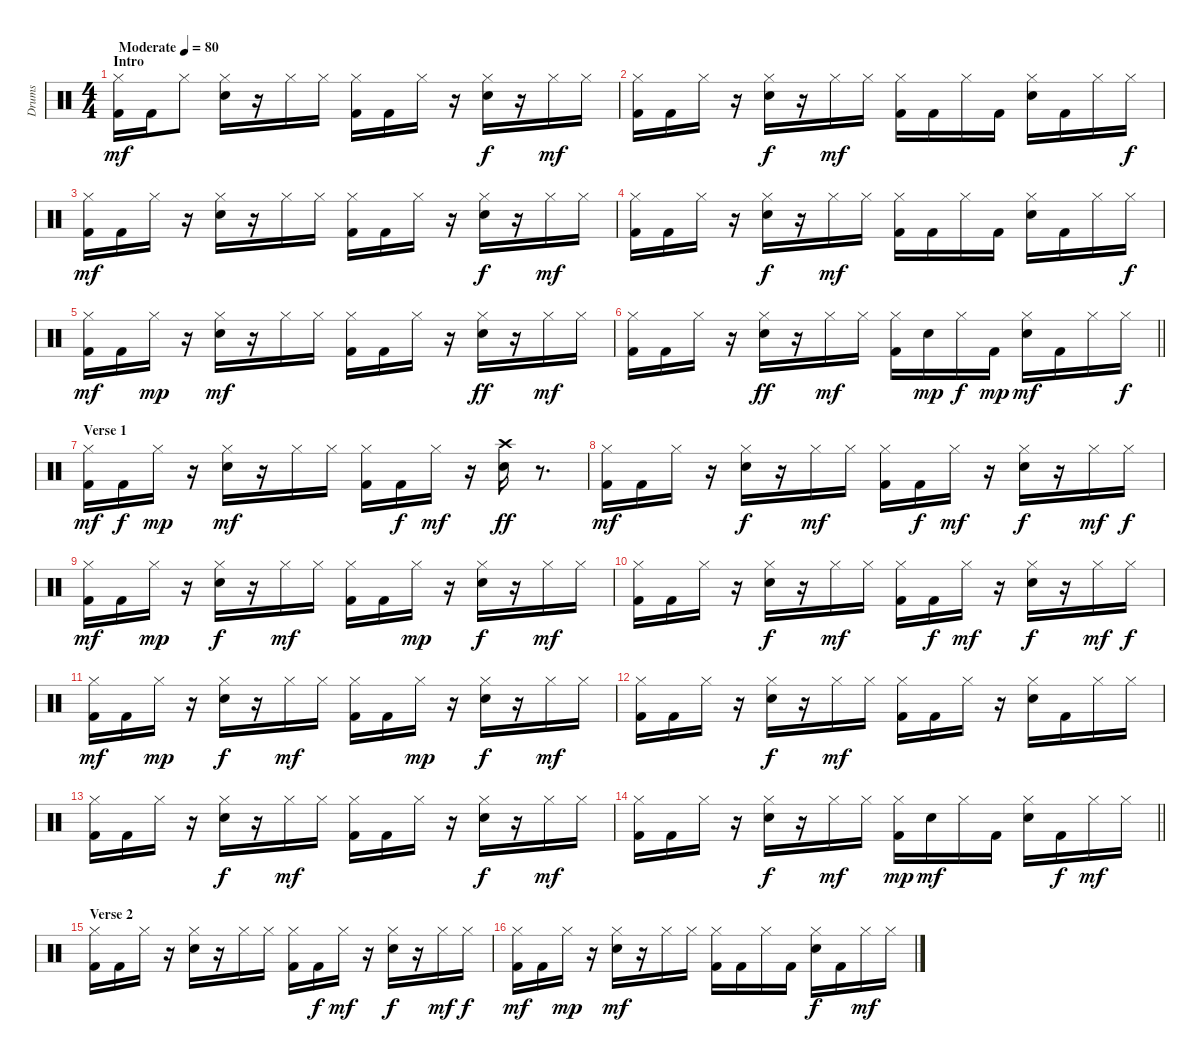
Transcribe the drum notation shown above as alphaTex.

\track ("Drums" "Drums") {instrument percussion}
\staff {score}
\articulation defaults
\ts (4 4)
\section ("" "Intro")
\tempo (80 "Moderate")
\clef neutral
\ks c
("Kick (hit) 2" "Hi-Hat (closed)").16{dy mf} "Kick (hit) 2".16 "Hi-Hat (closed)".8 ("Snare (hit) 2" "Hi-Hat (closed)").16 r.16 "Hi-Hat (closed)".16 "Hi-Hat (closed)".16 ("Kick (hit) 2" "Hi-Hat (closed)").16 "Kick (hit) 2".16 "Hi-Hat (closed)".16 r.16 ("Snare (hit) 2" "Hi-Hat (closed)").16{dy f} r.16 "Hi-Hat (closed)".16{dy mf} "Hi-Hat (closed)".16 |
("Kick (hit) 2" "Hi-Hat (closed)").16 "Kick (hit) 2".16 "Hi-Hat (closed)".16 r.16 ("Snare (hit) 2" "Hi-Hat (closed)").16{dy f} r.16 "Hi-Hat (closed)".16{dy mf} "Hi-Hat (closed)".16 ("Kick (hit) 2" "Hi-Hat (closed)").16 "Kick (hit) 2".16 "Hi-Hat (closed)".16 "Kick (hit) 2".16 ("Snare (hit) 2" "Hi-Hat (closed)").16 "Kick (hit) 2".16 "Hi-Hat (closed)".16 "Hi-Hat (closed)".16{dy f} |
("Kick (hit) 2" "Hi-Hat (closed)").16{dy mf} "Kick (hit) 2".16 "Hi-Hat (closed)".16 r.16 ("Snare (hit) 2" "Hi-Hat (closed)").16 r.16 "Hi-Hat (closed)".16 "Hi-Hat (closed)".16 ("Kick (hit) 2" "Hi-Hat (closed)").16 "Kick (hit) 2".16 "Hi-Hat (closed)".16 r.16 ("Snare (hit) 2" "Hi-Hat (closed)").16{dy f} r.16 "Hi-Hat (closed)".16{dy mf} "Hi-Hat (closed)".16 |
("Kick (hit) 2" "Hi-Hat (closed)").16 "Kick (hit) 2".16 "Hi-Hat (closed)".16 r.16 ("Snare (hit) 2" "Hi-Hat (closed)").16{dy f} r.16 "Hi-Hat (closed)".16{dy mf} "Hi-Hat (closed)".16 ("Kick (hit) 2" "Hi-Hat (closed)").16 "Kick (hit) 2".16 "Hi-Hat (closed)".16 "Kick (hit) 2".16 ("Snare (hit) 2" "Hi-Hat (closed)").16 "Kick (hit) 2".16 "Hi-Hat (closed)".16 "Hi-Hat (closed)".16{dy f} |
("Kick (hit) 2" "Hi-Hat (closed)").16{dy mf} "Kick (hit) 2".16 "Hi-Hat (closed)".16{dy mp} r.16 ("Snare (hit) 2" "Hi-Hat (closed)").16{dy mf} r.16 "Hi-Hat (closed)".16 "Hi-Hat (closed)".16 ("Kick (hit) 2" "Hi-Hat (closed)").16 "Kick (hit) 2".16 "Hi-Hat (closed)".16 r.16 ("Snare (hit) 2" "Hi-Hat (closed)").16{dy ff} r.16 "Hi-Hat (closed)".16{dy mf} "Hi-Hat (closed)".16 |
\barLineRight lightlight
("Kick (hit) 2" "Hi-Hat (closed)").16 "Kick (hit) 2".16 "Hi-Hat (closed)".16 r.16 ("Snare (hit) 2" "Hi-Hat (closed)").16{dy ff} r.16 "Hi-Hat (closed)".16{dy mf} "Hi-Hat (closed)".16 ("Kick (hit) 2" "Hi-Hat (closed)").16 "Snare (hit) 2".16{dy mp} "Hi-Hat (closed)".16{dy f} "Kick (hit) 2".16{dy mp} ("Snare (hit) 2" "Hi-Hat (closed)").16{dy mf} "Kick (hit) 2".16 "Hi-Hat (closed)".16 "Hi-Hat (closed)".16{dy f} |
\section ("" "Verse 1")
("Kick (hit) 2" "Hi-Hat (closed)").16{dy mf} "Kick (hit) 2".16{dy f} "Hi-Hat (closed)".16{dy mp} r.16 ("Snare (hit) 2" "Hi-Hat (closed)").16{dy mf} r.16 "Hi-Hat (closed)".16 "Hi-Hat (closed)".16 ("Kick (hit) 2" "Hi-Hat (closed)").16 "Kick (hit) 2".16{dy f} "Hi-Hat (closed)".16{dy mf} r.16 ("Snare (hit) 2" "Crash high (hit)").16{dy ff} r.8{d} |
("Kick (hit) 2" "Hi-Hat (closed)").16{dy mf} "Kick (hit) 2".16 "Hi-Hat (closed)".16 r.16 ("Snare (hit) 2" "Hi-Hat (closed)").16{dy f} r.16 "Hi-Hat (closed)".16{dy mf} "Hi-Hat (closed)".16 ("Kick (hit) 2" "Hi-Hat (closed)").16 "Kick (hit) 2".16{dy f} "Hi-Hat (closed)".16{dy mf} r.16 ("Snare (hit) 2" "Hi-Hat (closed)").16{dy f} r.16 "Hi-Hat (closed)".16{dy mf} "Hi-Hat (closed)".16{dy f} |
("Kick (hit) 2" "Hi-Hat (closed)").16{dy mf} "Kick (hit) 2".16 "Hi-Hat (closed)".16{dy mp} r.16 ("Snare (hit) 2" "Hi-Hat (closed)").16{dy f} r.16 "Hi-Hat (closed)".16{dy mf} "Hi-Hat (closed)".16 ("Kick (hit) 2" "Hi-Hat (closed)").16 "Kick (hit) 2".16 "Hi-Hat (closed)".16{dy mp} r.16 ("Snare (hit) 2" "Hi-Hat (closed)").16{dy f} r.16 "Hi-Hat (closed)".16{dy mf} "Hi-Hat (closed)".16 |
("Kick (hit) 2" "Hi-Hat (closed)").16 "Kick (hit) 2".16 "Hi-Hat (closed)".16 r.16 ("Snare (hit) 2" "Hi-Hat (closed)").16{dy f} r.16 "Hi-Hat (closed)".16{dy mf} "Hi-Hat (closed)".16 ("Kick (hit) 2" "Hi-Hat (closed)").16 "Kick (hit) 2".16{dy f} "Hi-Hat (closed)".16{dy mf} r.16 ("Snare (hit) 2" "Hi-Hat (closed)").16{dy f} r.16 "Hi-Hat (closed)".16{dy mf} "Hi-Hat (closed)".16{dy f} |
("Kick (hit) 2" "Hi-Hat (closed)").16{dy mf} "Kick (hit) 2".16 "Hi-Hat (closed)".16{dy mp} r.16 ("Snare (hit) 2" "Hi-Hat (closed)").16{dy f} r.16 "Hi-Hat (closed)".16{dy mf} "Hi-Hat (closed)".16 ("Kick (hit) 2" "Hi-Hat (closed)").16 "Kick (hit) 2".16 "Hi-Hat (closed)".16{dy mp} r.16 ("Snare (hit) 2" "Hi-Hat (closed)").16{dy f} r.16 "Hi-Hat (closed)".16{dy mf} "Hi-Hat (closed)".16 |
("Kick (hit) 2" "Hi-Hat (closed)").16 "Kick (hit) 2".16 "Hi-Hat (closed)".16 r.16 ("Snare (hit) 2" "Hi-Hat (closed)").16{dy f} r.16 "Hi-Hat (closed)".16{dy mf} "Hi-Hat (closed)".16 ("Kick (hit) 2" "Hi-Hat (closed)").16 "Kick (hit) 2".16 "Hi-Hat (closed)".16 r.16 ("Snare (hit) 2" "Hi-Hat (closed)").16 "Kick (hit) 2".16 "Hi-Hat (closed)".16 "Hi-Hat (closed)".16 |
("Kick (hit) 2" "Hi-Hat (closed)").16 "Kick (hit) 2".16 "Hi-Hat (closed)".16 r.16 ("Snare (hit) 2" "Hi-Hat (closed)").16{dy f} r.16 "Hi-Hat (closed)".16{dy mf} "Hi-Hat (closed)".16 ("Kick (hit) 2" "Hi-Hat (closed)").16 "Kick (hit) 2".16 "Hi-Hat (closed)".16 r.16 ("Snare (hit) 2" "Hi-Hat (closed)").16{dy f} r.16 "Hi-Hat (closed)".16{dy mf} "Hi-Hat (closed)".16 |
\barLineRight lightlight
("Kick (hit) 2" "Hi-Hat (closed)").16 "Kick (hit) 2".16 "Hi-Hat (closed)".16 r.16 ("Snare (hit) 2" "Hi-Hat (closed)").16{dy f} r.16 "Hi-Hat (closed)".16{dy mf} "Hi-Hat (closed)".16 ("Kick (hit) 2" "Hi-Hat (closed)").16{dy mp} "Snare (hit) 2".16{dy mf} "Hi-Hat (closed)".16 "Kick (hit) 2".16 ("Snare (hit) 2" "Hi-Hat (closed)").16 "Kick (hit) 2".16{dy f} "Hi-Hat (closed)".16{dy mf} "Hi-Hat (closed)".16 |
\section ("" "Verse 2")
("Kick (hit) 2" "Hi-Hat (closed)").16 "Kick (hit) 2".16 "Hi-Hat (closed)".16 r.16 ("Snare (hit) 2" "Hi-Hat (closed)").16 r.16 "Hi-Hat (closed)".16 "Hi-Hat (closed)".16 ("Kick (hit) 2" "Hi-Hat (closed)").16 "Kick (hit) 2".16{dy f} "Hi-Hat (closed)".16{dy mf} r.16 ("Snare (hit) 2" "Hi-Hat (closed)").16{dy f} r.16 "Hi-Hat (closed)".16{dy mf} "Hi-Hat (closed)".16{dy f} |
("Kick (hit) 2" "Hi-Hat (closed)").16{dy mf} "Kick (hit) 2".16 "Hi-Hat (closed)".16{dy mp} r.16 ("Snare (hit) 2" "Hi-Hat (closed)").16{dy mf} r.16 "Hi-Hat (closed)".16 "Hi-Hat (closed)".16 ("Kick (hit) 2" "Hi-Hat (closed)").16 "Kick (hit) 2".16 "Hi-Hat (closed)".16 "Kick (hit) 2".16 ("Snare (hit) 2" "Hi-Hat (closed)").16{dy f} "Kick (hit) 2".16 "Hi-Hat (closed)".16{dy mf} "Hi-Hat (closed)".16
